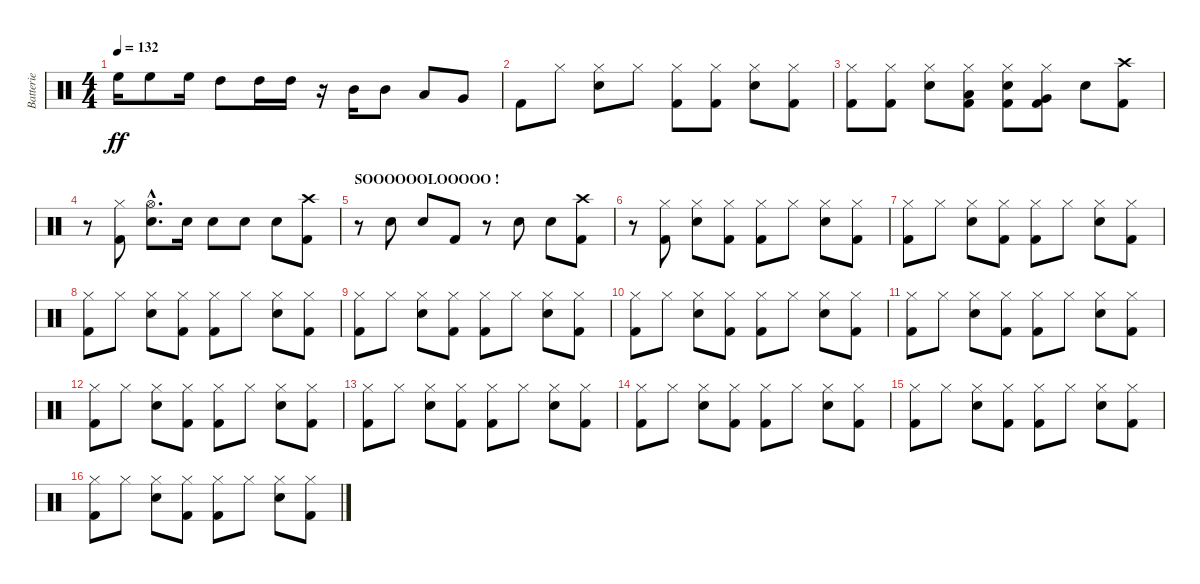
\track ("Batterie" "Batterie") {instrument percussion}
\staff {score}
\articulation defaults
\ts (4 4)
\tempo 132
\clef neutral
\ks c "High Floor Tom (hit)".16{dy ff} "High Floor Tom (hit)".8 "High Floor Tom (hit)".16 "High Tom (hit)".8 "High Tom (hit)".16 "High Tom (hit)".16
r.16 "Mid Tom (hit)".16 "Mid Tom (hit)".8 "Low Tom (hit)".8 "Very Low Tom (hit)".8 |
"Kick (hit) 2".8 "Hi-Hat (closed)".8 ("Snare (hit) 2" "Hi-Hat (closed)").8 "Hi-Hat (closed)".8 ("Kick (hit) 2" "Hi-Hat (closed)").8 ("Kick (hit) 2" "Hi-Hat (closed)").8 ("Snare (hit) 2" "Hi-Hat (closed)").8 ("Kick (hit) 2" "Hi-Hat (closed)").8 |
("Kick (hit) 2" "Hi-Hat (closed)").8 ("Kick (hit) 2" "Hi-Hat (closed)").8 ("Snare (hit) 2" "Hi-Hat (closed)").8 ("Kick (hit) 2" "Hi-Hat (closed)" "Low Tom (hit)").8 ("Kick (hit) 2" "Snare (hit) 2" "Hi-Hat (closed)").8 ("Kick (hit) 2" "Hi-Hat (closed)" "Very Low Tom (hit)").8 "Snare (hit) 2".8 ("Kick (hit) 2" "Crash high (hit)").8 |
r.8 ("Kick (hit) 2" "Hi-Hat (closed)").8 ("Snare (hit) 2"{hac} "Hi-Hat (open)"{hac}).8{d} "Snare (hit) 2".16 "Snare (hit) 2".8 "Snare (hit) 2".8 "Snare (hit) 2".8 ("Kick (hit) 2" "Crash high (hit)").8 |
\section ("" "SOOOOOOLOOOOO !")
r.8 "Snare (hit) 2".8 "Snare (hit) 2".8 "Kick (hit) 2".8 r.8 "Snare (hit) 2".8 "Snare (hit) 2".8 ("Kick (hit) 2" "Crash high (hit)").8 |
r.8 ("Kick (hit) 2" "Hi-Hat (closed)").8 ("Snare (hit) 2" "Hi-Hat (closed)").8 ("Kick (hit) 2" "Hi-Hat (closed)").8 ("Kick (hit) 2" "Hi-Hat (closed)").8 "Hi-Hat (closed)".8 ("Snare (hit) 2" "Hi-Hat (closed)").8 ("Kick (hit) 2" "Hi-Hat (closed)").8 |
("Kick (hit) 2" "Hi-Hat (closed)").8 "Hi-Hat (closed)".8 ("Snare (hit) 2" "Hi-Hat (closed)").8 ("Kick (hit) 2" "Hi-Hat (closed)").8 ("Kick (hit) 2" "Hi-Hat (closed)").8 "Hi-Hat (closed)".8 ("Snare (hit) 2" "Hi-Hat (closed)").8 ("Kick (hit) 2" "Hi-Hat (closed)").8 |
("Kick (hit) 2" "Hi-Hat (closed)").8 "Hi-Hat (closed)".8 ("Snare (hit) 2" "Hi-Hat (closed)").8 ("Kick (hit) 2" "Hi-Hat (closed)").8 ("Kick (hit) 2" "Hi-Hat (closed)").8 "Hi-Hat (closed)".8 ("Snare (hit) 2" "Hi-Hat (closed)").8 ("Kick (hit) 2" "Hi-Hat (closed)").8 |
("Kick (hit) 2" "Hi-Hat (closed)").8 "Hi-Hat (closed)".8 ("Snare (hit) 2" "Hi-Hat (closed)").8 ("Kick (hit) 2" "Hi-Hat (closed)").8 ("Kick (hit) 2" "Hi-Hat (closed)").8 "Hi-Hat (closed)".8 ("Snare (hit) 2" "Hi-Hat (closed)").8 ("Kick (hit) 2" "Hi-Hat (closed)").8 |
("Kick (hit) 2" "Hi-Hat (closed)").8 "Hi-Hat (closed)".8 ("Snare (hit) 2" "Hi-Hat (closed)").8 ("Kick (hit) 2" "Hi-Hat (closed)").8 ("Kick (hit) 2" "Hi-Hat (closed)").8 "Hi-Hat (closed)".8 ("Snare (hit) 2" "Hi-Hat (closed)").8 ("Kick (hit) 2" "Hi-Hat (closed)").8 |
("Kick (hit) 2" "Hi-Hat (closed)").8 "Hi-Hat (closed)".8 ("Snare (hit) 2" "Hi-Hat (closed)").8 ("Kick (hit) 2" "Hi-Hat (closed)").8 ("Kick (hit) 2" "Hi-Hat (closed)").8 "Hi-Hat (closed)".8 ("Snare (hit) 2" "Hi-Hat (closed)").8 ("Kick (hit) 2" "Hi-Hat (closed)").8 |
("Kick (hit) 2" "Hi-Hat (closed)").8 "Hi-Hat (closed)".8 ("Snare (hit) 2" "Hi-Hat (closed)").8 ("Kick (hit) 2" "Hi-Hat (closed)").8 ("Kick (hit) 2" "Hi-Hat (closed)").8 "Hi-Hat (closed)".8 ("Snare (hit) 2" "Hi-Hat (closed)").8 ("Kick (hit) 2" "Hi-Hat (closed)").8 |
("Kick (hit) 2" "Hi-Hat (closed)").8 "Hi-Hat (closed)".8 ("Snare (hit) 2" "Hi-Hat (closed)").8 ("Kick (hit) 2" "Hi-Hat (closed)").8 ("Kick (hit) 2" "Hi-Hat (closed)").8 "Hi-Hat (closed)".8 ("Snare (hit) 2" "Hi-Hat (closed)").8 ("Kick (hit) 2" "Hi-Hat (closed)").8 |
("Kick (hit) 2" "Hi-Hat (closed)").8 "Hi-Hat (closed)".8 ("Snare (hit) 2" "Hi-Hat (closed)").8 ("Kick (hit) 2" "Hi-Hat (closed)").8 ("Kick (hit) 2" "Hi-Hat (closed)").8 "Hi-Hat (closed)".8 ("Snare (hit) 2" "Hi-Hat (closed)").8 ("Kick (hit) 2" "Hi-Hat (closed)").8 |
("Kick (hit) 2" "Hi-Hat (closed)").8 "Hi-Hat (closed)".8 ("Snare (hit) 2" "Hi-Hat (closed)").8 ("Kick (hit) 2" "Hi-Hat (closed)").8 ("Kick (hit) 2" "Hi-Hat (closed)").8 "Hi-Hat (closed)".8 ("Snare (hit) 2" "Hi-Hat (closed)").8 ("Kick (hit) 2" "Hi-Hat (closed)").8 |
("Kick (hit) 2" "Hi-Hat (closed)").8 "Hi-Hat (closed)".8 ("Snare (hit) 2" "Hi-Hat (closed)").8 ("Kick (hit) 2" "Hi-Hat (closed)").8 ("Kick (hit) 2" "Hi-Hat (closed)").8 "Hi-Hat (closed)".8 ("Snare (hit) 2" "Hi-Hat (closed)").8 ("Kick (hit) 2" "Hi-Hat (closed)").8
